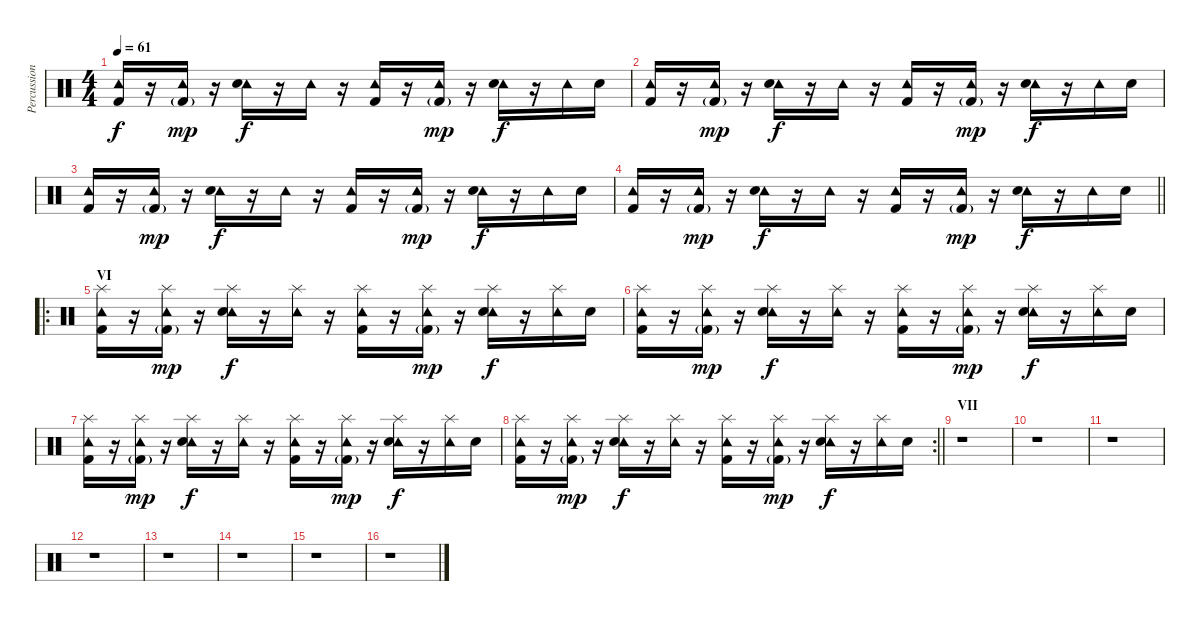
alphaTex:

\track ("Percussion" "Percussion") {instrument percussion}
\staff {score}
\articulation defaults
\ts (4 4)
\tempo 61
\clef neutral
\ks c
("Tambourine (hit)" "Kick (hit) 2").16{dy f} r.16 ("Tambourine (hit)" "Kick (hit) 2"{g}).16{dy mp} r.16 ("Tambourine (hit)" "Hand Clap (hit)").16{dy f} r.16 "Tambourine (hit)".16 r.16 ("Tambourine (hit)" "Kick (hit) 2").16 r.16 ("Tambourine (hit)" "Kick (hit) 2"{g}).16{dy mp} r.16 ("Tambourine (hit)" "Hand Clap (hit)").16{dy f} r.16 "Tambourine (hit)".16 "Hand Clap (hit)".16 |
("Tambourine (hit)" "Kick (hit) 2").16 r.16 ("Tambourine (hit)" "Kick (hit) 2"{g}).16{dy mp} r.16 ("Tambourine (hit)" "Hand Clap (hit)").16{dy f} r.16 "Tambourine (hit)".16 r.16 ("Tambourine (hit)" "Kick (hit) 2").16 r.16 ("Tambourine (hit)" "Kick (hit) 2"{g}).16{dy mp} r.16 ("Tambourine (hit)" "Hand Clap (hit)").16{dy f} r.16 "Tambourine (hit)".16 "Hand Clap (hit)".16 |
("Tambourine (hit)" "Kick (hit) 2").16 r.16 ("Tambourine (hit)" "Kick (hit) 2"{g}).16{dy mp} r.16 ("Tambourine (hit)" "Hand Clap (hit)").16{dy f} r.16 "Tambourine (hit)".16 r.16 ("Tambourine (hit)" "Kick (hit) 2").16 r.16 ("Tambourine (hit)" "Kick (hit) 2"{g}).16{dy mp} r.16 ("Tambourine (hit)" "Hand Clap (hit)").16{dy f} r.16 "Tambourine (hit)".16 "Hand Clap (hit)".16 |
\barLineRight lightlight
("Tambourine (hit)" "Kick (hit) 2").16 r.16 ("Tambourine (hit)" "Kick (hit) 2"{g}).16{dy mp} r.16 ("Tambourine (hit)" "Hand Clap (hit)").16{dy f} r.16 "Tambourine (hit)".16 r.16 ("Tambourine (hit)" "Kick (hit) 2").16 r.16 ("Tambourine (hit)" "Kick (hit) 2"{g}).16{dy mp} r.16 ("Tambourine (hit)" "Hand Clap (hit)").16{dy f} r.16 "Tambourine (hit)".16 "Hand Clap (hit)".16 |
\ro
\section ("" "VI")
("Splash (hit)" "Tambourine (hit)" "Kick (hit) 2").16 r.16 ("Splash (hit)" "Tambourine (hit)" "Kick (hit) 2"{g}).16{dy mp} r.16 ("Splash (hit)" "Tambourine (hit)" "Hand Clap (hit)").16{dy f} r.16 ("Splash (hit)" "Tambourine (hit)").16 r.16 ("Splash (hit)" "Tambourine (hit)" "Kick (hit) 2").16 r.16 ("Splash (hit)" "Tambourine (hit)" "Kick (hit) 2"{g}).16{dy mp} r.16 ("Splash (hit)" "Tambourine (hit)" "Hand Clap (hit)").16{dy f} r.16 ("Splash (hit)" "Tambourine (hit)").16 "Hand Clap (hit)".16 |
("Splash (hit)" "Tambourine (hit)" "Kick (hit) 2").16 r.16 ("Splash (hit)" "Tambourine (hit)" "Kick (hit) 2"{g}).16{dy mp} r.16 ("Splash (hit)" "Tambourine (hit)" "Hand Clap (hit)").16{dy f} r.16 ("Splash (hit)" "Tambourine (hit)").16 r.16 ("Splash (hit)" "Tambourine (hit)" "Kick (hit) 2").16 r.16 ("Splash (hit)" "Tambourine (hit)" "Kick (hit) 2"{g}).16{dy mp} r.16 ("Splash (hit)" "Tambourine (hit)" "Hand Clap (hit)").16{dy f} r.16 ("Splash (hit)" "Tambourine (hit)").16 "Hand Clap (hit)".16 |
("Splash (hit)" "Tambourine (hit)" "Kick (hit) 2").16 r.16 ("Splash (hit)" "Tambourine (hit)" "Kick (hit) 2"{g}).16{dy mp} r.16 ("Splash (hit)" "Tambourine (hit)" "Hand Clap (hit)").16{dy f} r.16 ("Splash (hit)" "Tambourine (hit)").16 r.16 ("Splash (hit)" "Tambourine (hit)" "Kick (hit) 2").16 r.16 ("Splash (hit)" "Tambourine (hit)" "Kick (hit) 2"{g}).16{dy mp} r.16 ("Splash (hit)" "Tambourine (hit)" "Hand Clap (hit)").16{dy f} r.16 ("Splash (hit)" "Tambourine (hit)").16 "Hand Clap (hit)".16 |
\rc 2
\barLineRight lightlight
("Splash (hit)" "Tambourine (hit)" "Kick (hit) 2").16 r.16 ("Splash (hit)" "Tambourine (hit)" "Kick (hit) 2"{g}).16{dy mp} r.16 ("Splash (hit)" "Tambourine (hit)" "Hand Clap (hit)").16{dy f} r.16 ("Splash (hit)" "Tambourine (hit)").16 r.16 ("Splash (hit)" "Tambourine (hit)" "Kick (hit) 2").16 r.16 ("Splash (hit)" "Tambourine (hit)" "Kick (hit) 2"{g}).16{dy mp} r.16 ("Splash (hit)" "Tambourine (hit)" "Hand Clap (hit)").16{dy f} r.16 ("Splash (hit)" "Tambourine (hit)").16 "Hand Clap (hit)".16 |
\section ("" "VII")
r.1 |
r.1 |
r.1 |
r.1 |
r.1 |
r.1 |
r.1 |
r.1
